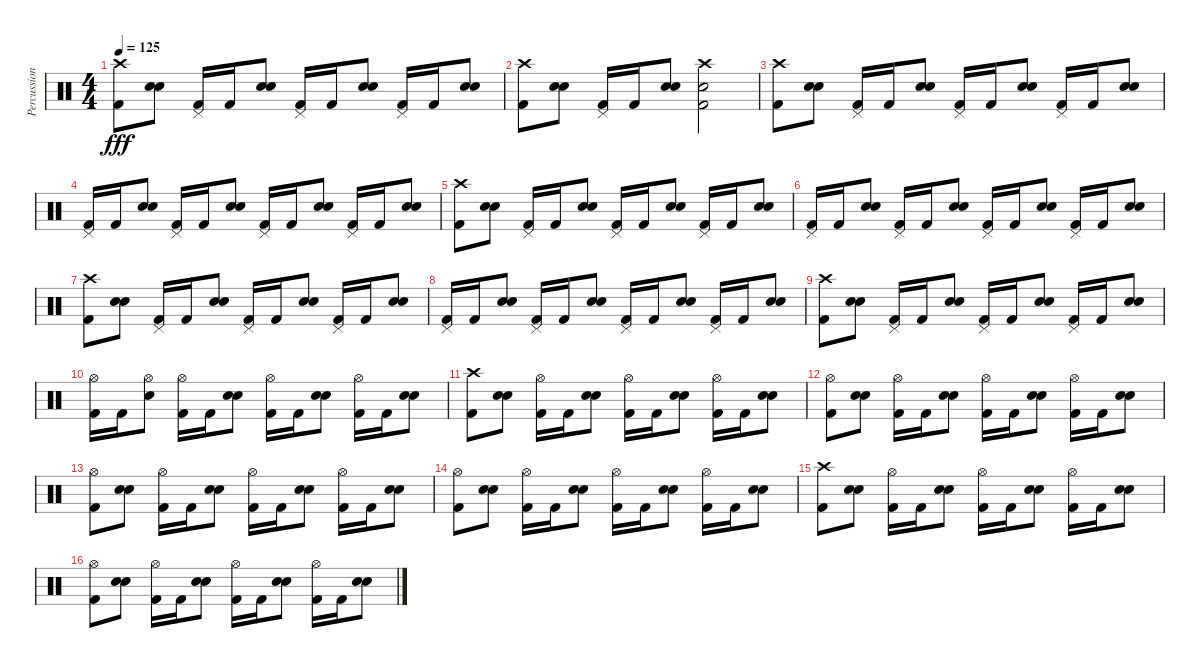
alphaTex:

\track ("Percussion" "Percussion") {instrument percussion}
\staff {score}
\articulation defaults
\ts (4 4)
\tempo 125
\clef neutral
\ks c
("Crash high (hit)" "Kick (hit) 2").8{dy fff} ("Snare (hit) 2" "Snare (hit) 2").8 ("Pedal Hi-Hat (hit)" "Kick (hit) 2").16 "Kick (hit) 2".16 ("Snare (hit) 2" "Snare (hit) 2").8 ("Pedal Hi-Hat (hit)" "Kick (hit) 2").16 "Kick (hit) 2".16 ("Snare (hit) 2" "Snare (hit) 2").8 ("Pedal Hi-Hat (hit)" "Kick (hit) 2").16 "Kick (hit) 2".16 ("Snare (hit) 2" "Snare (hit) 2").8 |
("Crash high (hit)" "Kick (hit) 2").8 ("Snare (hit) 2" "Snare (hit) 2").8 ("Pedal Hi-Hat (hit)" "Kick (hit) 2").16 "Kick (hit) 2".16 ("Snare (hit) 2" "Snare (hit) 2").8 ("Crash high (hit)" "Snare (hit) 2" "Kick (hit) 2").2 |
("Crash high (hit)" "Kick (hit) 2").8 ("Snare (hit) 2" "Snare (hit) 2").8 ("Pedal Hi-Hat (hit)" "Kick (hit) 2").16 "Kick (hit) 2".16 ("Snare (hit) 2" "Snare (hit) 2").8 ("Pedal Hi-Hat (hit)" "Kick (hit) 2").16 "Kick (hit) 2".16 ("Snare (hit) 2" "Snare (hit) 2").8 ("Pedal Hi-Hat (hit)" "Kick (hit) 2").16 "Kick (hit) 2".16 ("Snare (hit) 2" "Snare (hit) 2").8 |
("Pedal Hi-Hat (hit)" "Kick (hit) 2").16 "Kick (hit) 2".16 ("Snare (hit) 2" "Snare (hit) 2").8 ("Pedal Hi-Hat (hit)" "Kick (hit) 2").16 "Kick (hit) 2".16 ("Snare (hit) 2" "Snare (hit) 2").8 ("Pedal Hi-Hat (hit)" "Kick (hit) 2").16 "Kick (hit) 2".16 ("Snare (hit) 2" "Snare (hit) 2").8 ("Pedal Hi-Hat (hit)" "Kick (hit) 2").16 "Kick (hit) 2".16 ("Snare (hit) 2" "Snare (hit) 2").8 |
("Crash high (hit)" "Kick (hit) 2").8 ("Snare (hit) 2" "Snare (hit) 2").8 ("Pedal Hi-Hat (hit)" "Kick (hit) 2").16 "Kick (hit) 2".16 ("Snare (hit) 2" "Snare (hit) 2").8 ("Pedal Hi-Hat (hit)" "Kick (hit) 2").16 "Kick (hit) 2".16 ("Snare (hit) 2" "Snare (hit) 2").8 ("Pedal Hi-Hat (hit)" "Kick (hit) 2").16 "Kick (hit) 2".16 ("Snare (hit) 2" "Snare (hit) 2").8 |
("Pedal Hi-Hat (hit)" "Kick (hit) 2").16 "Kick (hit) 2".16 ("Snare (hit) 2" "Snare (hit) 2").8 ("Pedal Hi-Hat (hit)" "Kick (hit) 2").16 "Kick (hit) 2".16 ("Snare (hit) 2" "Snare (hit) 2").8 ("Pedal Hi-Hat (hit)" "Kick (hit) 2").16 "Kick (hit) 2".16 ("Snare (hit) 2" "Snare (hit) 2").8 ("Pedal Hi-Hat (hit)" "Kick (hit) 2").16 "Kick (hit) 2".16 ("Snare (hit) 2" "Snare (hit) 2").8 |
("Crash high (hit)" "Kick (hit) 2").8 ("Snare (hit) 2" "Snare (hit) 2").8 ("Pedal Hi-Hat (hit)" "Kick (hit) 2").16 "Kick (hit) 2".16 ("Snare (hit) 2" "Snare (hit) 2").8 ("Pedal Hi-Hat (hit)" "Kick (hit) 2").16 "Kick (hit) 2".16 ("Snare (hit) 2" "Snare (hit) 2").8 ("Pedal Hi-Hat (hit)" "Kick (hit) 2").16 "Kick (hit) 2".16 ("Snare (hit) 2" "Snare (hit) 2").8 |
("Pedal Hi-Hat (hit)" "Kick (hit) 2").16 "Kick (hit) 2".16 ("Snare (hit) 2" "Snare (hit) 2").8 ("Pedal Hi-Hat (hit)" "Kick (hit) 2").16 "Kick (hit) 2".16 ("Snare (hit) 2" "Snare (hit) 2").8 ("Pedal Hi-Hat (hit)" "Kick (hit) 2").16 "Kick (hit) 2".16 ("Snare (hit) 2" "Snare (hit) 2").8 ("Pedal Hi-Hat (hit)" "Kick (hit) 2").16 "Kick (hit) 2".16 ("Snare (hit) 2" "Snare (hit) 2").8 |
("Crash high (hit)" "Kick (hit) 2").8 ("Snare (hit) 2" "Snare (hit) 2").8 ("Pedal Hi-Hat (hit)" "Kick (hit) 2").16 "Kick (hit) 2".16 ("Snare (hit) 2" "Snare (hit) 2").8 ("Pedal Hi-Hat (hit)" "Kick (hit) 2").16 "Kick (hit) 2".16 ("Snare (hit) 2" "Snare (hit) 2").8 ("Pedal Hi-Hat (hit)" "Kick (hit) 2").16 "Kick (hit) 2".16 ("Snare (hit) 2" "Snare (hit) 2").8 |
("Hi-Hat (open)" "Kick (hit) 2").16 "Kick (hit) 2".16 ("Hi-Hat (open)" "Snare (hit) 2").8 ("Hi-Hat (open)" "Kick (hit) 2").16 "Kick (hit) 2".16 ("Snare (hit) 2" "Snare (hit) 2").8 ("Hi-Hat (open)" "Kick (hit) 2").16 "Kick (hit) 2".16 ("Snare (hit) 2" "Snare (hit) 2").8 ("Hi-Hat (open)" "Kick (hit) 2").16 "Kick (hit) 2".16 ("Snare (hit) 2" "Snare (hit) 2").8 |
("Crash high (hit)" "Kick (hit) 2").8 ("Snare (hit) 2" "Snare (hit) 2").8 ("Hi-Hat (open)" "Kick (hit) 2").16 "Kick (hit) 2".16 ("Snare (hit) 2" "Snare (hit) 2").8 ("Hi-Hat (open)" "Kick (hit) 2").16 "Kick (hit) 2".16 ("Snare (hit) 2" "Snare (hit) 2").8 ("Hi-Hat (open)" "Kick (hit) 2").16 "Kick (hit) 2".16 ("Snare (hit) 2" "Snare (hit) 2").8 |
("Hi-Hat (open)" "Kick (hit) 2").8 ("Snare (hit) 2" "Snare (hit) 2").8 ("Hi-Hat (open)" "Kick (hit) 2").16 "Kick (hit) 2".16 ("Snare (hit) 2" "Snare (hit) 2").8 ("Hi-Hat (open)" "Kick (hit) 2").16 "Kick (hit) 2".16 ("Snare (hit) 2" "Snare (hit) 2").8 ("Hi-Hat (open)" "Kick (hit) 2").16 "Kick (hit) 2".16 ("Snare (hit) 2" "Snare (hit) 2").8 |
("Hi-Hat (open)" "Kick (hit) 2").8 ("Snare (hit) 2" "Snare (hit) 2").8 ("Hi-Hat (open)" "Kick (hit) 2").16 "Kick (hit) 2".16 ("Snare (hit) 2" "Snare (hit) 2").8 ("Hi-Hat (open)" "Kick (hit) 2").16 "Kick (hit) 2".16 ("Snare (hit) 2" "Snare (hit) 2").8 ("Hi-Hat (open)" "Kick (hit) 2").16 "Kick (hit) 2".16 ("Snare (hit) 2" "Snare (hit) 2").8 |
("Hi-Hat (open)" "Kick (hit) 2").8 ("Snare (hit) 2" "Snare (hit) 2").8 ("Hi-Hat (open)" "Kick (hit) 2").16 "Kick (hit) 2".16 ("Snare (hit) 2" "Snare (hit) 2").8 ("Hi-Hat (open)" "Kick (hit) 2").16 "Kick (hit) 2".16 ("Snare (hit) 2" "Snare (hit) 2").8 ("Hi-Hat (open)" "Kick (hit) 2").16 "Kick (hit) 2".16 ("Snare (hit) 2" "Snare (hit) 2").8 |
("Crash high (hit)" "Kick (hit) 2").8 ("Snare (hit) 2" "Snare (hit) 2").8 ("Hi-Hat (open)" "Kick (hit) 2").16 "Kick (hit) 2".16 ("Snare (hit) 2" "Snare (hit) 2").8 ("Hi-Hat (open)" "Kick (hit) 2").16 "Kick (hit) 2".16 ("Snare (hit) 2" "Snare (hit) 2").8 ("Hi-Hat (open)" "Kick (hit) 2").16 "Kick (hit) 2".16 ("Snare (hit) 2" "Snare (hit) 2").8 |
("Hi-Hat (open)" "Kick (hit) 2").8 ("Snare (hit) 2" "Snare (hit) 2").8 ("Hi-Hat (open)" "Kick (hit) 2").16 "Kick (hit) 2".16 ("Snare (hit) 2" "Snare (hit) 2").8 ("Hi-Hat (open)" "Kick (hit) 2").16 "Kick (hit) 2".16 ("Snare (hit) 2" "Snare (hit) 2").8 ("Hi-Hat (open)" "Kick (hit) 2").16 "Kick (hit) 2".16 ("Snare (hit) 2" "Snare (hit) 2").8
